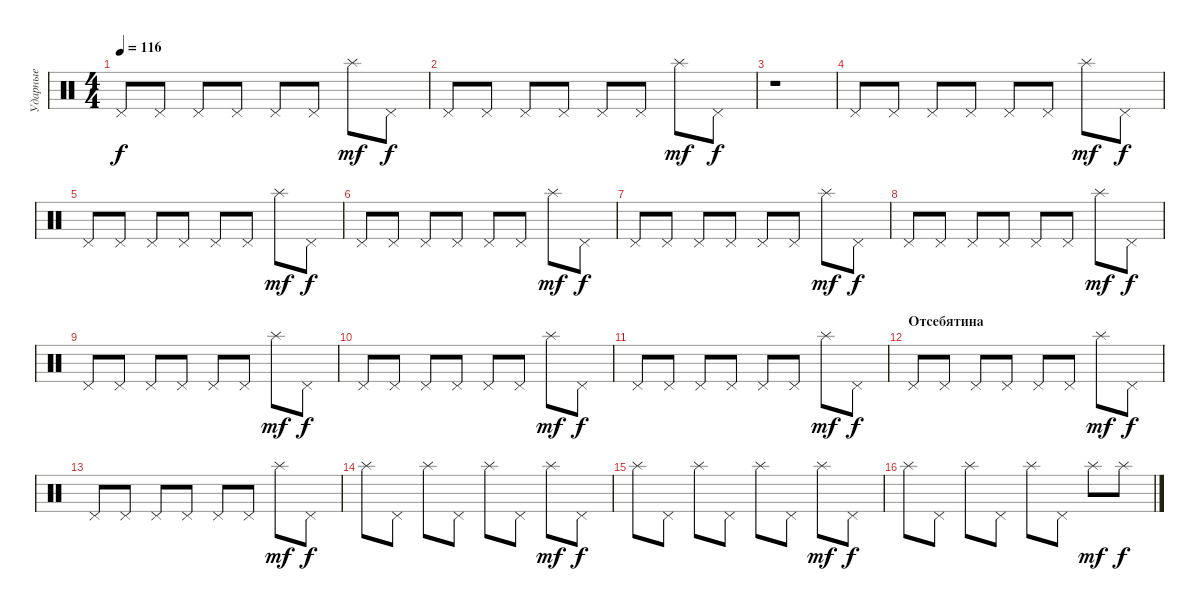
\track ("Ударные" "Ударные") {instrument percussion}
\staff {score}
\articulation defaults
\ts (4 4)
\tempo 116
\clef neutral
\ks c "Pedal Hi-Hat (hit)".8{dy f} "Pedal Hi-Hat (hit)".8 "Pedal Hi-Hat (hit)".8 "Pedal Hi-Hat (hit)".8 "Pedal Hi-Hat (hit)".8 "Pedal Hi-Hat (hit)".8 "Splash (hit)".8{dy mf} "Pedal Hi-Hat (hit)".8{dy f}
|
"Pedal Hi-Hat (hit)".8 "Pedal Hi-Hat (hit)".8 "Pedal Hi-Hat (hit)".8 "Pedal Hi-Hat (hit)".8 "Pedal Hi-Hat (hit)".8 "Pedal Hi-Hat (hit)".8 "Splash (hit)".8{dy mf} "Pedal Hi-Hat (hit)".8{dy f} |
r.1 |
"Pedal Hi-Hat (hit)".8 "Pedal Hi-Hat (hit)".8 "Pedal Hi-Hat (hit)".8 "Pedal Hi-Hat (hit)".8 "Pedal Hi-Hat (hit)".8 "Pedal Hi-Hat (hit)".8 "Splash (hit)".8{dy mf} "Pedal Hi-Hat (hit)".8{dy f} |
"Pedal Hi-Hat (hit)".8 "Pedal Hi-Hat (hit)".8 "Pedal Hi-Hat (hit)".8 "Pedal Hi-Hat (hit)".8 "Pedal Hi-Hat (hit)".8 "Pedal Hi-Hat (hit)".8 "Splash (hit)".8{dy mf} "Pedal Hi-Hat (hit)".8{dy f} |
"Pedal Hi-Hat (hit)".8 "Pedal Hi-Hat (hit)".8 "Pedal Hi-Hat (hit)".8 "Pedal Hi-Hat (hit)".8 "Pedal Hi-Hat (hit)".8 "Pedal Hi-Hat (hit)".8 "Splash (hit)".8{dy mf} "Pedal Hi-Hat (hit)".8{dy f} |
"Pedal Hi-Hat (hit)".8 "Pedal Hi-Hat (hit)".8 "Pedal Hi-Hat (hit)".8 "Pedal Hi-Hat (hit)".8 "Pedal Hi-Hat (hit)".8 "Pedal Hi-Hat (hit)".8 "Splash (hit)".8{dy mf} "Pedal Hi-Hat (hit)".8{dy f} |
"Pedal Hi-Hat (hit)".8 "Pedal Hi-Hat (hit)".8 "Pedal Hi-Hat (hit)".8 "Pedal Hi-Hat (hit)".8 "Pedal Hi-Hat (hit)".8 "Pedal Hi-Hat (hit)".8 "Splash (hit)".8{dy mf} "Pedal Hi-Hat (hit)".8{dy f} |
"Pedal Hi-Hat (hit)".8 "Pedal Hi-Hat (hit)".8 "Pedal Hi-Hat (hit)".8 "Pedal Hi-Hat (hit)".8 "Pedal Hi-Hat (hit)".8 "Pedal Hi-Hat (hit)".8 "Splash (hit)".8{dy mf} "Pedal Hi-Hat (hit)".8{dy f} |
"Pedal Hi-Hat (hit)".8 "Pedal Hi-Hat (hit)".8 "Pedal Hi-Hat (hit)".8 "Pedal Hi-Hat (hit)".8 "Pedal Hi-Hat (hit)".8 "Pedal Hi-Hat (hit)".8 "Splash (hit)".8{dy mf} "Pedal Hi-Hat (hit)".8{dy f} |
"Pedal Hi-Hat (hit)".8 "Pedal Hi-Hat (hit)".8 "Pedal Hi-Hat (hit)".8 "Pedal Hi-Hat (hit)".8 "Pedal Hi-Hat (hit)".8 "Pedal Hi-Hat (hit)".8 "Splash (hit)".8{dy mf} "Pedal Hi-Hat (hit)".8{dy f} |
\section ("" "Отсебятина")
"Pedal Hi-Hat (hit)".8 "Pedal Hi-Hat (hit)".8 "Pedal Hi-Hat (hit)".8 "Pedal Hi-Hat (hit)".8 "Pedal Hi-Hat (hit)".8 "Pedal Hi-Hat (hit)".8 "Splash (hit)".8{dy mf} "Pedal Hi-Hat (hit)".8{dy f} |
"Pedal Hi-Hat (hit)".8 "Pedal Hi-Hat (hit)".8 "Pedal Hi-Hat (hit)".8 "Pedal Hi-Hat (hit)".8 "Pedal Hi-Hat (hit)".8 "Pedal Hi-Hat (hit)".8 "Splash (hit)".8{dy mf} "Pedal Hi-Hat (hit)".8{dy f} |
"Splash (hit)".8 "Pedal Hi-Hat (hit)".8 "Splash (hit)".8 "Pedal Hi-Hat (hit)".8 "Splash (hit)".8 "Pedal Hi-Hat (hit)".8 "Splash (hit)".8{dy mf} "Pedal Hi-Hat (hit)".8{dy f} |
"Splash (hit)".8 "Pedal Hi-Hat (hit)".8 "Splash (hit)".8 "Pedal Hi-Hat (hit)".8 "Splash (hit)".8 "Pedal Hi-Hat (hit)".8 "Splash (hit)".8{dy mf} "Pedal Hi-Hat (hit)".8{dy f} |
"Splash (hit)".8 "Pedal Hi-Hat (hit)".8 "Splash (hit)".8 "Pedal Hi-Hat (hit)".8 "Splash (hit)".8 "Pedal Hi-Hat (hit)".8 "Splash (hit)".8{dy mf} "Splash (hit)".8{dy f}
